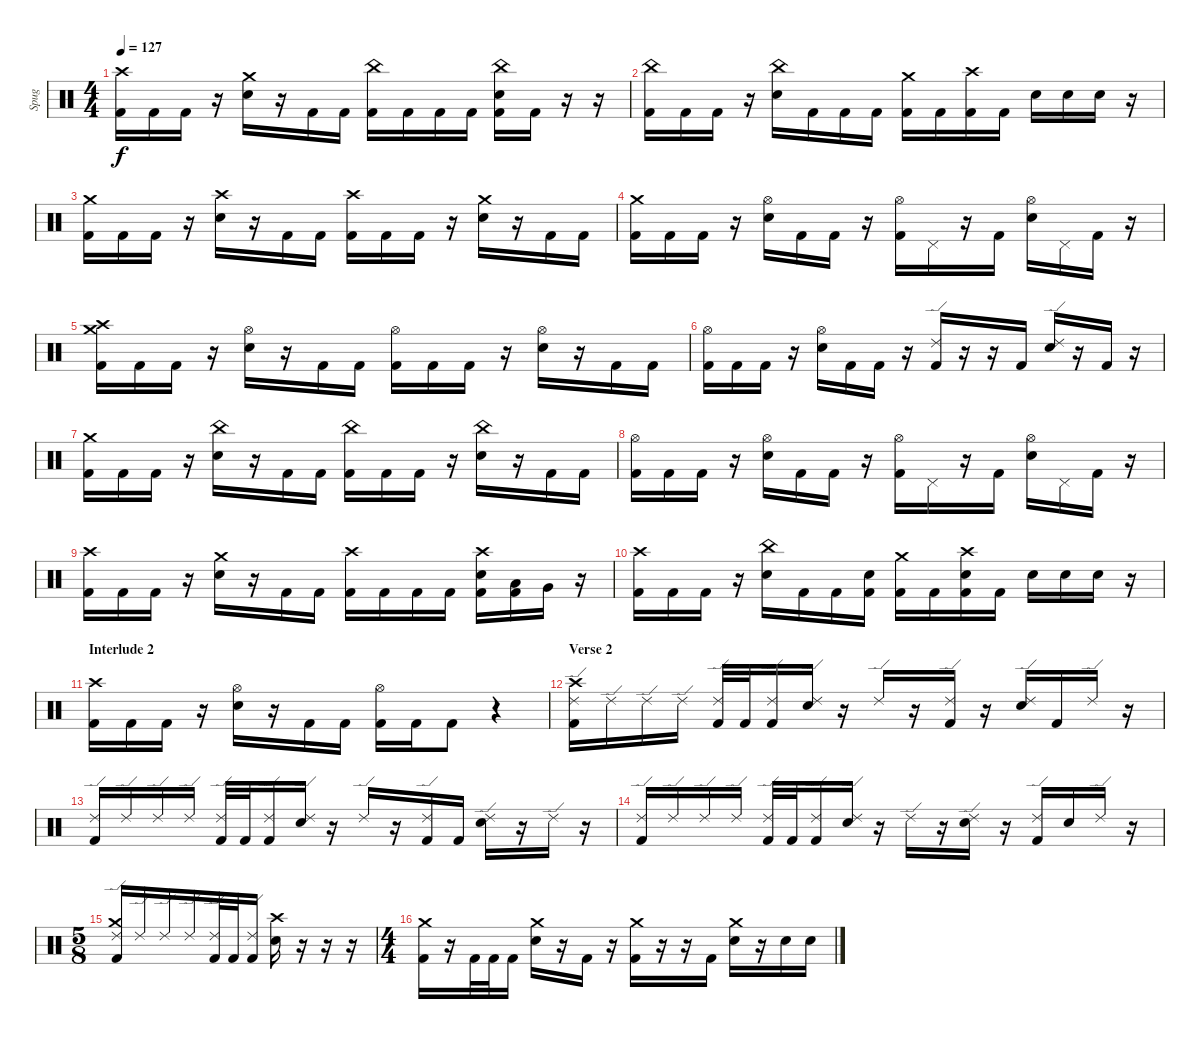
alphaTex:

\track ("Spug" "Spug") {instrument percussion}
\staff {score}
\articulation defaults
\ts (4 4)
\tempo 127
\clef neutral
\ks c
("Crash high (hit)" "Kick (hit) 2").16{dy f} "Kick (hit) 2".16 "Kick (hit) 2".16 r.16 ("Crash medium (hit)" "Electric Snare (hit)").16 r.16 "Kick (hit) 2".16 "Kick (hit) 2".16 ("China (hit)" "Kick (hit) 2").16 "Kick (hit) 2".16 "Kick (hit) 2".16 "Kick (hit) 2".16 ("China (hit)" "Electric Snare (hit)" "Kick (hit) 2").16 "Kick (hit) 2".16 r.16 r.16 |
("China (hit)" "Kick (hit) 2").16 "Kick (hit) 2".16 "Kick (hit) 2".16 r.16 ("China (hit)" "Electric Snare (hit)").16 "Kick (hit) 2".16 "Kick (hit) 2".16 "Kick (hit) 2".16 ("Crash medium (hit)" "Kick (hit) 2").16 "Kick (hit) 2".16 ("Crash high (hit)" "Kick (hit) 2").16 "Kick (hit) 2".16 "Electric Snare (hit)".16 "Electric Snare (hit)".16 "Electric Snare (hit)".16 r.16 |
("Crash medium (hit)" "Kick (hit) 2").16 "Kick (hit) 2".16 "Kick (hit) 2".16 r.16 ("Crash high (hit)" "Electric Snare (hit)").16 r.16 "Kick (hit) 2".16 "Kick (hit) 2".16 ("Crash high (hit)" "Kick (hit) 2").16 "Kick (hit) 2".16 "Kick (hit) 2".16 r.16 ("Crash medium (hit)" "Electric Snare (hit)").16 r.16 "Kick (hit) 2".16 "Kick (hit) 2".16 |
("Crash medium (hit)" "Kick (hit) 2").16 "Kick (hit) 2".16 "Kick (hit) 2".16 r.16 ("Hi-Hat (open)" "Electric Snare (hit)").16 "Kick (hit) 2".16 "Kick (hit) 2".16 r.16 ("Hi-Hat (open)" "Kick (hit) 2").16 "Pedal Hi-Hat (hit)".16 r.16 "Kick (hit) 2".16 ("Hi-Hat (open)" "Electric Snare (hit)").16 "Pedal Hi-Hat (hit)".16 "Kick (hit) 2".16 r.16 |
("Crash medium (hit)" "Crash high (hit)" "Kick (hit) 2").16 "Kick (hit) 2".16 "Kick (hit) 2".16 r.16 ("Hi-Hat (open)" "Electric Snare (hit)").16 r.16 "Kick (hit) 2".16 "Kick (hit) 2".16 ("Hi-Hat (open)" "Kick (hit) 2").16 "Kick (hit) 2".16 "Kick (hit) 2".16 r.16 ("Hi-Hat (open)" "Electric Snare (hit)").16 r.16 "Kick (hit) 2".16 "Kick (hit) 2".16 |
("Hi-Hat (open)" "Kick (hit) 2").16 "Kick (hit) 2".16 "Kick (hit) 2".16 r.16 ("Hi-Hat (open)" "Electric Snare (hit)").16 "Kick (hit) 2".16 "Kick (hit) 2".16 r.16 ("Ride (edge) 2" "Kick (hit) 2").16 r.16 r.16 "Kick (hit) 2".16 ("Ride (edge) 2" "Electric Snare (hit)").16 r.16 "Kick (hit) 2".16 r.16 |
("Crash medium (hit)" "Kick (hit) 2").16 "Kick (hit) 2".16 "Kick (hit) 2".16 r.16 ("China (hit)" "Electric Snare (hit)").16 r.16 "Kick (hit) 2".16 "Kick (hit) 2".16 ("China (hit)" "Kick (hit) 2").16 "Kick (hit) 2".16 "Kick (hit) 2".16 r.16 ("China (hit)" "Electric Snare (hit)").16 r.16 "Kick (hit) 2".16 "Kick (hit) 2".16 |
("Hi-Hat (open)" "Kick (hit) 2").16 "Kick (hit) 2".16 "Kick (hit) 2".16 r.16 ("Hi-Hat (open)" "Electric Snare (hit)").16 "Kick (hit) 2".16 "Kick (hit) 2".16 r.16 ("Hi-Hat (open)" "Kick (hit) 2").16 "Pedal Hi-Hat (hit)".16 r.16 "Kick (hit) 2".16 ("Hi-Hat (open)" "Electric Snare (hit)").16 "Pedal Hi-Hat (hit)".16 "Kick (hit) 2".16 r.16 |
("Crash high (hit)" "Kick (hit) 2").16 "Kick (hit) 2".16 "Kick (hit) 2".16 r.16 ("Crash medium (hit)" "Electric Snare (hit)").16 r.16 "Kick (hit) 2".16 "Kick (hit) 2".16 ("Crash high (hit)" "Kick (hit) 2").16 "Kick (hit) 2".16 "Kick (hit) 2".16 "Kick (hit) 2".16 ("Crash high (hit)" "Electric Snare (hit)" "Kick (hit) 2").16 ("Low Tom (hit)" "Kick (hit) 2").16 "Very Low Tom (hit)".16 r.16 |
("Crash high (hit)" "Kick (hit) 2").16 "Kick (hit) 2".16 "Kick (hit) 2".16 r.16 ("China (hit)" "Electric Snare (hit)").16 "Kick (hit) 2".16 "Kick (hit) 2".16 ("Electric Snare (hit)" "Kick (hit) 2").16 ("Crash medium (hit)" "Kick (hit) 2").16 "Kick (hit) 2".16 ("Crash high (hit)" "Electric Snare (hit)" "Kick (hit) 2").16 "Kick (hit) 2".16 "Electric Snare (hit)".16 "Electric Snare (hit)".16 "Electric Snare (hit)".16 r.16 |
\section ("" "Interlude 2")
("Crash high (hit)" "Kick (hit) 2").16 "Kick (hit) 2".16 "Kick (hit) 2".16 r.16 ("Hi-Hat (open)" "Electric Snare (hit)").16 r.16 "Kick (hit) 2".16 "Kick (hit) 2".16 ("Hi-Hat (open)" "Kick (hit) 2").16 "Kick (hit) 2".16 "Kick (hit) 2".8 r.4 |
\section ("" "Verse 2")
("Crash high (hit)" "Ride (edge) 2" "Kick (hit) 2").16 "Ride (edge) 2".16 "Ride (edge) 2".16 "Ride (edge) 2".16 ("Ride (edge) 2" "Kick (hit) 2").32 "Kick (hit) 2".32 ("Ride (edge) 2" "Kick (hit) 2").16 ("Ride (edge) 2" "Electric Snare (hit)").16 r.16 "Ride (edge) 2".16 r.16 ("Ride (edge) 2" "Kick (hit) 2").16 r.16 ("Ride (edge) 2" "Electric Snare (hit)").16 "Kick (hit) 2".16 "Ride (edge) 2".16 r.16 |
("Ride (edge) 2" "Kick (hit) 2").16 "Ride (edge) 2".16 "Ride (edge) 2".16 "Ride (edge) 2".16 ("Ride (edge) 2" "Kick (hit) 2").32 "Kick (hit) 2".32 ("Ride (edge) 2" "Kick (hit) 2").16 ("Ride (edge) 2" "Electric Snare (hit)").16 r.16 "Ride (edge) 2".16 r.16 ("Ride (edge) 2" "Kick (hit) 2").16 "Kick (hit) 2".16 ("Ride (edge) 2" "Electric Snare (hit)").16 r.16 "Ride (edge) 2".16 r.16 |
("Ride (edge) 2" "Kick (hit) 2").16 "Ride (edge) 2".16 "Ride (edge) 2".16 "Ride (edge) 2".16 ("Ride (edge) 2" "Kick (hit) 2").32 "Kick (hit) 2".32 ("Ride (edge) 2" "Kick (hit) 2").16 ("Ride (edge) 2" "Electric Snare (hit)").16 r.16 "Ride (edge) 2".16 r.16 ("Ride (edge) 2" "Electric Snare (hit)").16 r.16 ("Ride (edge) 2" "Kick (hit) 2").16 "Electric Snare (hit)".16 "Ride (edge) 2".16 r.16 |
\ts (5 8)
("Crash medium (hit)" "Ride (edge) 2" "Kick (hit) 2").16 "Ride (edge) 2".16 "Ride (edge) 2".16 "Ride (edge) 2".16 ("Ride (edge) 2" "Kick (hit) 2").32 "Kick (hit) 2".32 ("Ride (edge) 2" "Kick (hit) 2").16 ("Crash high (hit)" "Electric Snare (hit)").16 r.16 r.16 r.16 |
\ts (4 4)
("Crash medium (hit)" "Kick (hit) 2").16 r.16 "Kick (hit) 2".32 "Kick (hit) 2".32 "Kick (hit) 2".16 ("Crash medium (hit)" "Electric Snare (hit)").16 r.16 "Kick (hit) 2".16 r.16 ("Crash medium (hit)" "Kick (hit) 2").16 r.16 r.16 "Kick (hit) 2".16 ("Crash medium (hit)" "Electric Snare (hit)").16 r.16 "Electric Snare (hit)".16 "Electric Snare (hit)".16
